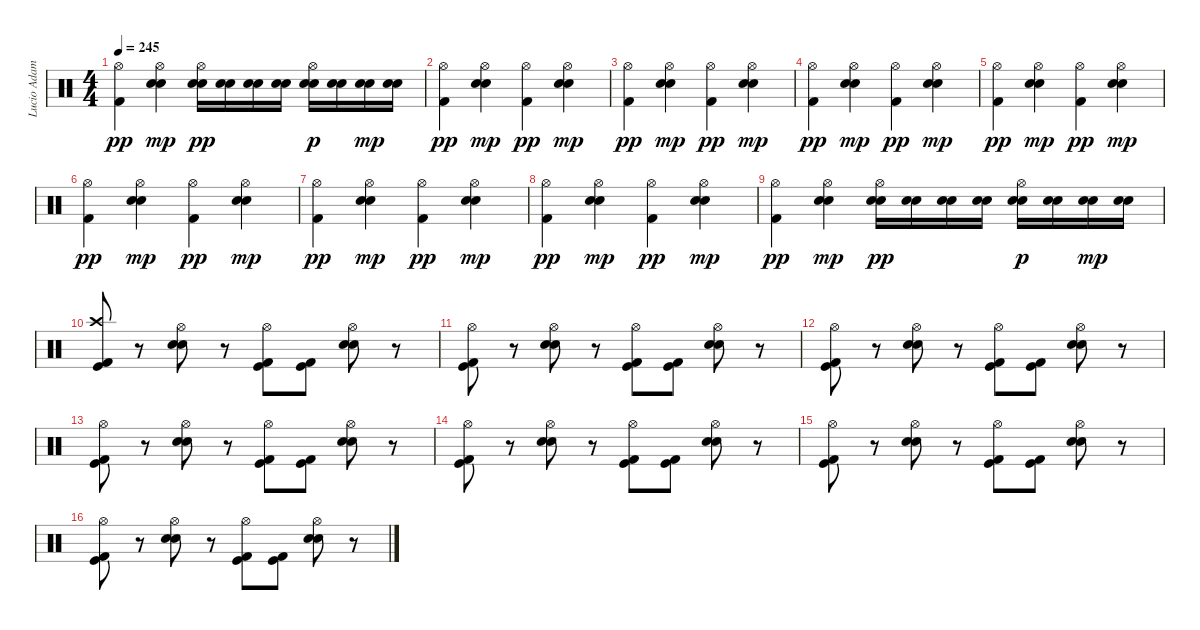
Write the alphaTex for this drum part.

\track ("Lucio Adamo (Bateria)" "Lucio Adam") {instrument percussion}
\staff {score}
\articulation defaults
\ts (4 4)
\tempo 245
\clef neutral
\ks c
("Hi-Hat (open)" "Kick (hit) 2").4{dy pp} ("Hi-Hat (open)" "Electric Snare (hit)" "Snare (hit) 2").4{dy mp} ("Hi-Hat (open)" "Electric Snare (hit)" "Snare (hit) 2").16{dy pp} ("Electric Snare (hit)" "Snare (hit) 2").16 ("Electric Snare (hit)" "Snare (hit) 2").16 ("Electric Snare (hit)" "Snare (hit) 2").16 ("Hi-Hat (open)" "Electric Snare (hit)" "Snare (hit) 2").16{dy p} ("Electric Snare (hit)" "Snare (hit) 2").16 ("Electric Snare (hit)" "Snare (hit) 2").16{dy mp} ("Electric Snare (hit)" "Snare (hit) 2").16 |
("Hi-Hat (open)" "Kick (hit) 2").4{dy pp} ("Hi-Hat (open)" "Electric Snare (hit)" "Snare (hit) 2").4{dy mp} ("Hi-Hat (open)" "Kick (hit) 2").4{dy pp} ("Hi-Hat (open)" "Electric Snare (hit)" "Snare (hit) 2").4{dy mp} |
("Hi-Hat (open)" "Kick (hit) 2").4{dy pp} ("Hi-Hat (open)" "Electric Snare (hit)" "Snare (hit) 2").4{dy mp} ("Hi-Hat (open)" "Kick (hit) 2").4{dy pp} ("Hi-Hat (open)" "Electric Snare (hit)" "Snare (hit) 2").4{dy mp} |
("Hi-Hat (open)" "Kick (hit) 2").4{dy pp} ("Hi-Hat (open)" "Electric Snare (hit)" "Snare (hit) 2").4{dy mp} ("Hi-Hat (open)" "Kick (hit) 2").4{dy pp} ("Hi-Hat (open)" "Electric Snare (hit)" "Snare (hit) 2").4{dy mp} |
("Hi-Hat (open)" "Kick (hit) 2").4{dy pp} ("Hi-Hat (open)" "Electric Snare (hit)" "Snare (hit) 2").4{dy mp} ("Hi-Hat (open)" "Kick (hit) 2").4{dy pp} ("Hi-Hat (open)" "Electric Snare (hit)" "Snare (hit) 2").4{dy mp} |
("Hi-Hat (open)" "Kick (hit) 2").4{dy pp} ("Hi-Hat (open)" "Electric Snare (hit)" "Snare (hit) 2").4{dy mp} ("Hi-Hat (open)" "Kick (hit) 2").4{dy pp} ("Hi-Hat (open)" "Electric Snare (hit)" "Snare (hit) 2").4{dy mp} |
("Hi-Hat (open)" "Kick (hit) 2").4{dy pp} ("Hi-Hat (open)" "Electric Snare (hit)" "Snare (hit) 2").4{dy mp} ("Hi-Hat (open)" "Kick (hit) 2").4{dy pp} ("Hi-Hat (open)" "Electric Snare (hit)" "Snare (hit) 2").4{dy mp} |
("Hi-Hat (open)" "Kick (hit) 2").4{dy pp} ("Hi-Hat (open)" "Electric Snare (hit)" "Snare (hit) 2").4{dy mp} ("Hi-Hat (open)" "Kick (hit) 2").4{dy pp} ("Hi-Hat (open)" "Electric Snare (hit)" "Snare (hit) 2").4{dy mp} |
("Hi-Hat (open)" "Kick (hit) 2").4{dy pp} ("Hi-Hat (open)" "Electric Snare (hit)" "Snare (hit) 2").4{dy mp} ("Hi-Hat (open)" "Electric Snare (hit)" "Snare (hit) 2").16{dy pp} ("Electric Snare (hit)" "Snare (hit) 2").16 ("Electric Snare (hit)" "Snare (hit) 2").16 ("Electric Snare (hit)" "Snare (hit) 2").16 ("Hi-Hat (open)" "Electric Snare (hit)" "Snare (hit) 2").16{dy p} ("Electric Snare (hit)" "Snare (hit) 2").16 ("Electric Snare (hit)" "Snare (hit) 2").16{dy mp} ("Electric Snare (hit)" "Snare (hit) 2").16 |
("Crash high (hit)" "Kick (hit)" "Kick (hit) 2").8 r.8 ("Hi-Hat (open)" "Snare (hit) 2" "Electric Snare (hit)").8 r.8 ("Hi-Hat (open)" "Kick (hit) 2" "Kick (hit)").8 ("Kick (hit) 2" "Kick (hit)").8 ("Hi-Hat (open)" "Snare (hit) 2" "Electric Snare (hit)").8 r.8 |
("Hi-Hat (open)" "Kick (hit)" "Kick (hit) 2").8 r.8 ("Hi-Hat (open)" "Snare (hit) 2" "Electric Snare (hit)").8 r.8 ("Hi-Hat (open)" "Kick (hit) 2" "Kick (hit)").8 ("Kick (hit) 2" "Kick (hit)").8 ("Hi-Hat (open)" "Snare (hit) 2" "Electric Snare (hit)").8 r.8 |
("Hi-Hat (open)" "Kick (hit)" "Kick (hit) 2").8 r.8 ("Hi-Hat (open)" "Snare (hit) 2" "Electric Snare (hit)").8 r.8 ("Hi-Hat (open)" "Kick (hit) 2" "Kick (hit)").8 ("Kick (hit) 2" "Kick (hit)").8 ("Hi-Hat (open)" "Snare (hit) 2" "Electric Snare (hit)").8 r.8 |
("Hi-Hat (open)" "Kick (hit)" "Kick (hit) 2").8 r.8 ("Hi-Hat (open)" "Snare (hit) 2" "Electric Snare (hit)").8 r.8 ("Hi-Hat (open)" "Kick (hit) 2" "Kick (hit)").8 ("Kick (hit) 2" "Kick (hit)").8 ("Hi-Hat (open)" "Snare (hit) 2" "Electric Snare (hit)").8 r.8 |
("Hi-Hat (open)" "Kick (hit)" "Kick (hit) 2").8 r.8 ("Hi-Hat (open)" "Snare (hit) 2" "Electric Snare (hit)").8 r.8 ("Hi-Hat (open)" "Kick (hit) 2" "Kick (hit)").8 ("Kick (hit) 2" "Kick (hit)").8 ("Hi-Hat (open)" "Snare (hit) 2" "Electric Snare (hit)").8 r.8 |
("Hi-Hat (open)" "Kick (hit)" "Kick (hit) 2").8 r.8 ("Hi-Hat (open)" "Snare (hit) 2" "Electric Snare (hit)").8 r.8 ("Hi-Hat (open)" "Kick (hit) 2" "Kick (hit)").8 ("Kick (hit) 2" "Kick (hit)").8 ("Hi-Hat (open)" "Snare (hit) 2" "Electric Snare (hit)").8 r.8 |
("Hi-Hat (open)" "Kick (hit)" "Kick (hit) 2").8 r.8 ("Hi-Hat (open)" "Snare (hit) 2" "Electric Snare (hit)").8 r.8 ("Hi-Hat (open)" "Kick (hit) 2" "Kick (hit)").8 ("Kick (hit) 2" "Kick (hit)").8 ("Hi-Hat (open)" "Snare (hit) 2" "Electric Snare (hit)").8 r.8
